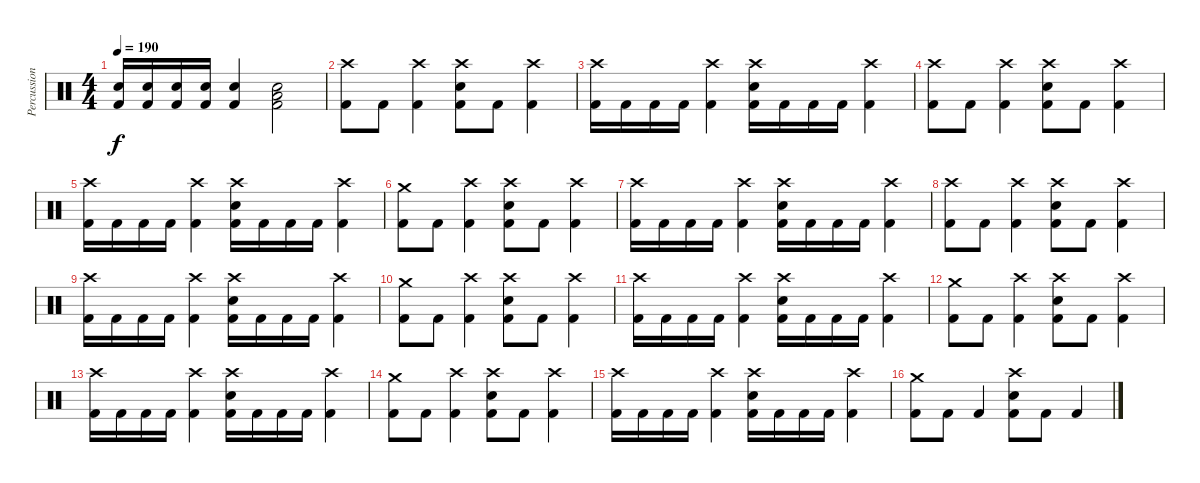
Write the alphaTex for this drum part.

\track ("Percussion" "Percussion") {instrument percussion}
\staff {score}
\articulation defaults
\ts (4 4)
\tempo 190
\clef neutral
\ks c
("Electric Snare (hit)" "Kick (hit) 2").16{dy f} ("Electric Snare (hit)" "Kick (hit) 2").16 ("Electric Snare (hit)" "Kick (hit) 2").16 ("Electric Snare (hit)" "Kick (hit) 2").16 ("Electric Snare (hit)" "Kick (hit) 2").4 ("Electric Snare (hit)" "Low Floor Tom (hit)" "Kick (hit) 2").2 |
("Crash high (hit)" "Kick (hit) 2").8 "Kick (hit) 2".8 ("Crash high (hit)" "Kick (hit) 2").4 ("Crash high (hit)" "Electric Snare (hit)" "Kick (hit) 2").8 "Kick (hit) 2".8 ("Crash high (hit)" "Kick (hit) 2").4 |
("Crash high (hit)" "Kick (hit) 2").16 "Kick (hit) 2".16 "Kick (hit) 2".16 "Kick (hit) 2".16 ("Crash high (hit)" "Kick (hit) 2").4 ("Crash high (hit)" "Electric Snare (hit)" "Kick (hit) 2").16 "Kick (hit) 2".16 "Kick (hit) 2".16 "Kick (hit) 2".16 ("Crash high (hit)" "Kick (hit) 2").4 |
("Crash high (hit)" "Kick (hit) 2").8 "Kick (hit) 2".8 ("Crash high (hit)" "Kick (hit) 2").4 ("Crash high (hit)" "Electric Snare (hit)" "Kick (hit) 2").8 "Kick (hit) 2".8 ("Crash high (hit)" "Kick (hit) 2").4 |
("Crash high (hit)" "Kick (hit) 2").16 "Kick (hit) 2".16 "Kick (hit) 2".16 "Kick (hit) 2".16 ("Crash high (hit)" "Kick (hit) 2").4 ("Crash high (hit)" "Electric Snare (hit)" "Kick (hit) 2").16 "Kick (hit) 2".16 "Kick (hit) 2".16 "Kick (hit) 2".16 ("Crash high (hit)" "Kick (hit) 2").4 |
("Crash medium (hit)" "Kick (hit) 2").8 "Kick (hit) 2".8 ("Crash high (hit)" "Kick (hit) 2").4 ("Crash high (hit)" "Electric Snare (hit)" "Kick (hit) 2").8 "Kick (hit) 2".8 ("Crash high (hit)" "Kick (hit) 2").4 |
("Crash high (hit)" "Kick (hit) 2").16 "Kick (hit) 2".16 "Kick (hit) 2".16 "Kick (hit) 2".16 ("Crash high (hit)" "Kick (hit) 2").4 ("Crash high (hit)" "Electric Snare (hit)" "Kick (hit) 2").16 "Kick (hit) 2".16 "Kick (hit) 2".16 "Kick (hit) 2".16 ("Crash high (hit)" "Kick (hit) 2").4 |
("Crash high (hit)" "Kick (hit) 2").8 "Kick (hit) 2".8 ("Crash high (hit)" "Kick (hit) 2").4 ("Crash high (hit)" "Electric Snare (hit)" "Kick (hit) 2").8 "Kick (hit) 2".8 ("Crash high (hit)" "Kick (hit) 2").4 |
("Crash high (hit)" "Kick (hit) 2").16 "Kick (hit) 2".16 "Kick (hit) 2".16 "Kick (hit) 2".16 ("Crash high (hit)" "Kick (hit) 2").4 ("Crash high (hit)" "Electric Snare (hit)" "Kick (hit) 2").16 "Kick (hit) 2".16 "Kick (hit) 2".16 "Kick (hit) 2".16 ("Crash high (hit)" "Kick (hit) 2").4 |
("Crash medium (hit)" "Kick (hit) 2").8 "Kick (hit) 2".8 ("Crash high (hit)" "Kick (hit) 2").4 ("Crash high (hit)" "Electric Snare (hit)" "Kick (hit) 2").8 "Kick (hit) 2".8 ("Crash high (hit)" "Kick (hit) 2").4 |
("Crash high (hit)" "Kick (hit) 2").16 "Kick (hit) 2".16 "Kick (hit) 2".16 "Kick (hit) 2".16 ("Crash high (hit)" "Kick (hit) 2").4 ("Crash high (hit)" "Electric Snare (hit)" "Kick (hit) 2").16 "Kick (hit) 2".16 "Kick (hit) 2".16 "Kick (hit) 2".16 ("Crash high (hit)" "Kick (hit) 2").4 |
("Crash medium (hit)" "Kick (hit) 2").8 "Kick (hit) 2".8 ("Crash high (hit)" "Kick (hit) 2").4 ("Crash high (hit)" "Electric Snare (hit)" "Kick (hit) 2").8 "Kick (hit) 2".8 ("Crash high (hit)" "Kick (hit) 2").4 |
("Crash high (hit)" "Kick (hit) 2").16 "Kick (hit) 2".16 "Kick (hit) 2".16 "Kick (hit) 2".16 ("Crash high (hit)" "Kick (hit) 2").4 ("Crash high (hit)" "Electric Snare (hit)" "Kick (hit) 2").16 "Kick (hit) 2".16 "Kick (hit) 2".16 "Kick (hit) 2".16 ("Crash high (hit)" "Kick (hit) 2").4 |
("Crash medium (hit)" "Kick (hit) 2").8 "Kick (hit) 2".8 ("Crash high (hit)" "Kick (hit) 2").4 ("Crash high (hit)" "Electric Snare (hit)" "Kick (hit) 2").8 "Kick (hit) 2".8 ("Crash high (hit)" "Kick (hit) 2").4 |
("Crash high (hit)" "Kick (hit) 2").16 "Kick (hit) 2".16 "Kick (hit) 2".16 "Kick (hit) 2".16 ("Crash high (hit)" "Kick (hit) 2").4 ("Crash high (hit)" "Electric Snare (hit)" "Kick (hit) 2").16 "Kick (hit) 2".16 "Kick (hit) 2".16 "Kick (hit) 2".16 ("Crash high (hit)" "Kick (hit) 2").4 |
("Crash medium (hit)" "Kick (hit) 2").8 "Kick (hit) 2".8 "Kick (hit) 2".4 ("Crash high (hit)" "Electric Snare (hit)" "Kick (hit) 2").8 "Kick (hit) 2".8 "Kick (hit) 2".4
